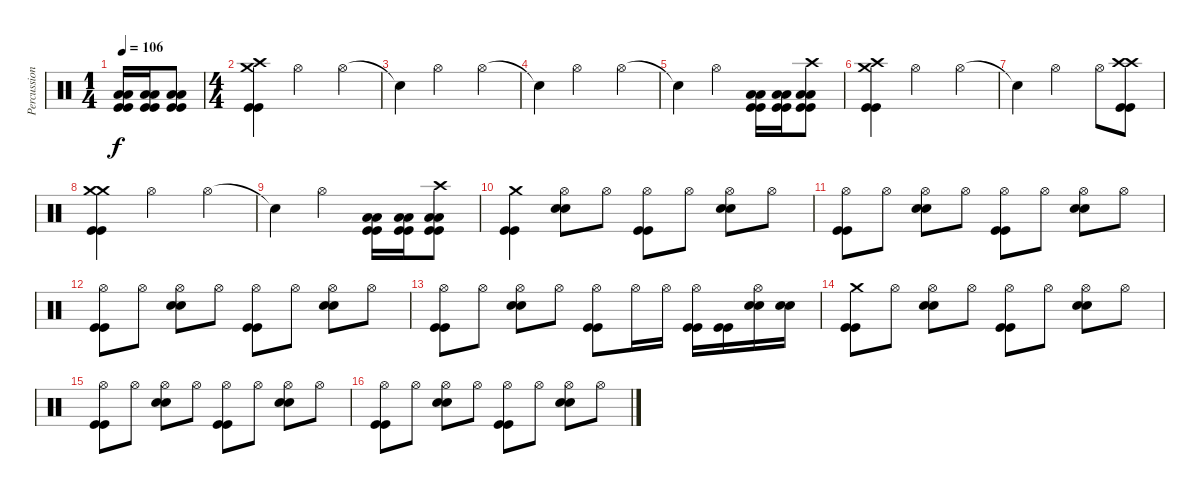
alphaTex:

\track ("Percussion" "Percussion") {instrument percussion}
\staff {score}
\articulation defaults
\ts (1 4)
\tempo 106
\clef neutral
\ks c
("Low Floor Tom (hit)" "Low Floor Tom (hit)" "Kick (hit)" "Kick (hit)").16{dy f} ("Low Floor Tom (hit)" "Low Floor Tom (hit)" "Kick (hit)" "Kick (hit)").16 ("Low Floor Tom (hit)" "Low Floor Tom (hit)" "Kick (hit)" "Kick (hit)").8 |
\ts (4 4)
("Crash high (hit)" "Crash medium (hit)" "Kick (hit)" "Kick (hit)").4 "Hi-Hat (open)".2 "Hi-Hat (open)".4 |
"Snare (hit)"{t}.4 "Hi-Hat (open)".2 "Hi-Hat (open)".4 |
"Snare (hit)"{t}.4 "Hi-Hat (open)".2 "Hi-Hat (open)".4 |
"Snare (hit)"{t}.4 "Hi-Hat (open)".2 ("Low Floor Tom (hit)" "Low Floor Tom (hit)" "Kick (hit)" "Kick (hit)").16 ("Low Floor Tom (hit)" "Low Floor Tom (hit)" "Kick (hit)" "Kick (hit)").16 ("Crash high (hit)" "Low Floor Tom (hit)" "Low Floor Tom (hit)" "Kick (hit)" "Kick (hit)").8 |
("Crash high (hit)" "Crash medium (hit)" "Kick (hit)" "Kick (hit)").4 "Hi-Hat (open)".2 "Hi-Hat (open)".4 |
"Snare (hit)"{t}.4 "Hi-Hat (open)".2 "Hi-Hat (open)".8 ("Crash high (hit)" "Crash high (hit)" "Kick (hit)" "Kick (hit)").8 |
("Crash medium (hit)" "Crash medium (hit)" "Kick (hit)" "Kick (hit)").4 "Hi-Hat (open)".2 "Hi-Hat (open)".4 |
"Snare (hit)"{t}.4 "Hi-Hat (open)".2 ("Low Floor Tom (hit)" "Low Floor Tom (hit)" "Kick (hit)" "Kick (hit)").16 ("Low Floor Tom (hit)" "Low Floor Tom (hit)" "Kick (hit)" "Kick (hit)").16 ("Crash high (hit)" "Low Floor Tom (hit)" "Low Floor Tom (hit)" "Kick (hit)" "Kick (hit)").8 |
("Crash medium (hit)" "Kick (hit)" "Kick (hit)").4 ("Hi-Hat (open)" "Snare (hit) 2" "Snare (hit) 2").8 "Hi-Hat (open)".8 ("Hi-Hat (open)" "Kick (hit)" "Kick (hit)").8 "Hi-Hat (open)".8 ("Hi-Hat (open)" "Snare (hit) 2" "Snare (hit) 2").8 "Hi-Hat (open)".8 |
("Hi-Hat (open)" "Kick (hit)" "Kick (hit)").8 "Hi-Hat (open)".8 ("Hi-Hat (open)" "Snare (hit) 2" "Snare (hit) 2").8 "Hi-Hat (open)".8 ("Hi-Hat (open)" "Kick (hit)" "Kick (hit)").8 "Hi-Hat (open)".8 ("Hi-Hat (open)" "Snare (hit) 2" "Snare (hit) 2").8 "Hi-Hat (open)".8 |
("Hi-Hat (open)" "Kick (hit)" "Kick (hit)").8 "Hi-Hat (open)".8 ("Hi-Hat (open)" "Snare (hit) 2" "Snare (hit) 2").8 "Hi-Hat (open)".8 ("Hi-Hat (open)" "Kick (hit)" "Kick (hit)").8 "Hi-Hat (open)".8 ("Hi-Hat (open)" "Snare (hit) 2" "Snare (hit) 2").8 "Hi-Hat (open)".8 |
("Hi-Hat (open)" "Kick (hit)" "Kick (hit)").8 "Hi-Hat (open)".8 ("Hi-Hat (open)" "Snare (hit) 2" "Snare (hit) 2").8 "Hi-Hat (open)".8 ("Hi-Hat (open)" "Kick (hit)" "Kick (hit)").8 "Hi-Hat (open)".16 "Hi-Hat (open)".16 ("Hi-Hat (open)" "Kick (hit)" "Kick (hit)").16 ("Kick (hit)" "Kick (hit)").16 ("Hi-Hat (open)" "Snare (hit) 2" "Snare (hit) 2").16 ("Snare (hit) 2" "Snare (hit) 2").16 |
("Crash medium (hit)" "Kick (hit)" "Kick (hit)").8 "Hi-Hat (open)".8 ("Hi-Hat (open)" "Snare (hit) 2" "Snare (hit) 2").8 "Hi-Hat (open)".8 ("Hi-Hat (open)" "Kick (hit)" "Kick (hit)").8 "Hi-Hat (open)".8 ("Hi-Hat (open)" "Snare (hit) 2" "Snare (hit) 2").8 "Hi-Hat (open)".8 |
("Hi-Hat (open)" "Kick (hit)" "Kick (hit)").8 "Hi-Hat (open)".8 ("Hi-Hat (open)" "Snare (hit) 2" "Snare (hit) 2").8 "Hi-Hat (open)".8 ("Hi-Hat (open)" "Kick (hit)" "Kick (hit)").8 "Hi-Hat (open)".8 ("Hi-Hat (open)" "Snare (hit) 2" "Snare (hit) 2").8 "Hi-Hat (open)".8 |
("Hi-Hat (open)" "Kick (hit)" "Kick (hit)").8 "Hi-Hat (open)".8 ("Hi-Hat (open)" "Snare (hit) 2" "Snare (hit) 2").8 "Hi-Hat (open)".8 ("Hi-Hat (open)" "Kick (hit)" "Kick (hit)").8 "Hi-Hat (open)".8 ("Hi-Hat (open)" "Snare (hit) 2" "Snare (hit) 2").8 "Hi-Hat (open)".8
